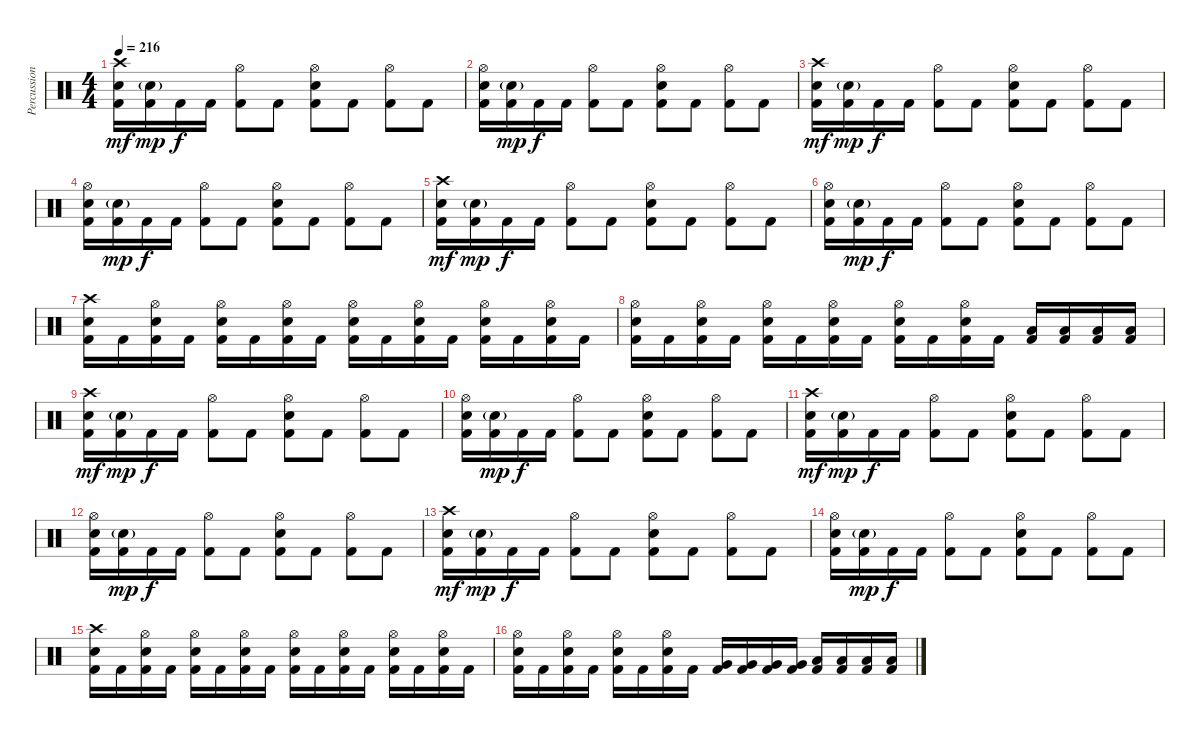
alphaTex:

\track ("Percussions" "Percussion") {instrument percussion}
\staff {score}
\articulation defaults
\ts (4 4)
\tempo 216
\clef neutral
\ks c
("Crash high (hit)" "Electric Snare (hit)" "Kick (hit) 2").16{dy mf} ("Electric Snare (hit)"{g} "Kick (hit) 2").16{dy mp} "Kick (hit) 2".16{dy f} "Kick (hit) 2".16 ("Hi-Hat (open)" "Kick (hit) 2").8 "Kick (hit) 2".8 ("Hi-Hat (open)" "Electric Snare (hit)" "Kick (hit) 2").8 "Kick (hit) 2".8 ("Hi-Hat (open)" "Kick (hit) 2").8 "Kick (hit) 2".8 |
("Hi-Hat (open)" "Electric Snare (hit)" "Kick (hit) 2").16 ("Electric Snare (hit)"{g} "Kick (hit) 2").16{dy mp} "Kick (hit) 2".16{dy f} "Kick (hit) 2".16 ("Hi-Hat (open)" "Kick (hit) 2").8 "Kick (hit) 2".8 ("Hi-Hat (open)" "Electric Snare (hit)" "Kick (hit) 2").8 "Kick (hit) 2".8 ("Hi-Hat (open)" "Kick (hit) 2").8 "Kick (hit) 2".8 |
("Crash high (hit)" "Electric Snare (hit)" "Kick (hit) 2").16{dy mf} ("Electric Snare (hit)"{g} "Kick (hit) 2").16{dy mp} "Kick (hit) 2".16{dy f} "Kick (hit) 2".16 ("Hi-Hat (open)" "Kick (hit) 2").8 "Kick (hit) 2".8 ("Hi-Hat (open)" "Electric Snare (hit)" "Kick (hit) 2").8 "Kick (hit) 2".8 ("Hi-Hat (open)" "Kick (hit) 2").8 "Kick (hit) 2".8 |
("Hi-Hat (open)" "Electric Snare (hit)" "Kick (hit) 2").16 ("Electric Snare (hit)"{g} "Kick (hit) 2").16{dy mp} "Kick (hit) 2".16{dy f} "Kick (hit) 2".16 ("Hi-Hat (open)" "Kick (hit) 2").8 "Kick (hit) 2".8 ("Hi-Hat (open)" "Electric Snare (hit)" "Kick (hit) 2").8 "Kick (hit) 2".8 ("Hi-Hat (open)" "Kick (hit) 2").8 "Kick (hit) 2".8 |
("Crash high (hit)" "Electric Snare (hit)" "Kick (hit) 2").16{dy mf} ("Electric Snare (hit)"{g} "Kick (hit) 2").16{dy mp} "Kick (hit) 2".16{dy f} "Kick (hit) 2".16 ("Hi-Hat (open)" "Kick (hit) 2").8 "Kick (hit) 2".8 ("Hi-Hat (open)" "Electric Snare (hit)" "Kick (hit) 2").8 "Kick (hit) 2".8 ("Hi-Hat (open)" "Kick (hit) 2").8 "Kick (hit) 2".8 |
("Hi-Hat (open)" "Electric Snare (hit)" "Kick (hit) 2").16 ("Electric Snare (hit)"{g} "Kick (hit) 2").16{dy mp} "Kick (hit) 2".16{dy f} "Kick (hit) 2".16 ("Hi-Hat (open)" "Kick (hit) 2").8 "Kick (hit) 2".8 ("Hi-Hat (open)" "Electric Snare (hit)" "Kick (hit) 2").8 "Kick (hit) 2".8 ("Hi-Hat (open)" "Kick (hit) 2").8 "Kick (hit) 2".8 |
("Crash high (hit)" "Electric Snare (hit)" "Kick (hit) 2").16 "Kick (hit) 2".16 ("Hi-Hat (open)" "Electric Snare (hit)" "Kick (hit) 2").16 "Kick (hit) 2".16 ("Hi-Hat (open)" "Electric Snare (hit)" "Kick (hit) 2").16 "Kick (hit) 2".16 ("Hi-Hat (open)" "Electric Snare (hit)" "Kick (hit) 2").16 "Kick (hit) 2".16 ("Hi-Hat (open)" "Electric Snare (hit)" "Kick (hit) 2").16 "Kick (hit) 2".16 ("Hi-Hat (open)" "Electric Snare (hit)" "Kick (hit) 2").16 "Kick (hit) 2".16 ("Hi-Hat (open)" "Electric Snare (hit)" "Kick (hit) 2").16 "Kick (hit) 2".16 ("Hi-Hat (open)" "Electric Snare (hit)" "Kick (hit) 2").16 "Kick (hit) 2".16 |
("Hi-Hat (open)" "Electric Snare (hit)" "Kick (hit) 2").16 "Kick (hit) 2".16 ("Hi-Hat (open)" "Electric Snare (hit)" "Kick (hit) 2").16 "Kick (hit) 2".16 ("Hi-Hat (open)" "Electric Snare (hit)" "Kick (hit) 2").16 "Kick (hit) 2".16 ("Hi-Hat (open)" "Electric Snare (hit)" "Kick (hit) 2").16 "Kick (hit) 2".16 ("Hi-Hat (open)" "Electric Snare (hit)" "Kick (hit) 2").16 "Kick (hit) 2".16 ("Hi-Hat (open)" "Electric Snare (hit)" "Kick (hit) 2").16 "Kick (hit) 2".16 ("Low Tom (hit)" "Kick (hit) 2").16 ("Low Tom (hit)" "Kick (hit) 2").16 ("Low Tom (hit)" "Kick (hit) 2").16 ("Low Tom (hit)" "Kick (hit) 2").16 |
("Crash high (hit)" "Electric Snare (hit)" "Kick (hit) 2").16{dy mf} ("Electric Snare (hit)"{g} "Kick (hit) 2").16{dy mp} "Kick (hit) 2".16{dy f} "Kick (hit) 2".16 ("Hi-Hat (open)" "Kick (hit) 2").8 "Kick (hit) 2".8 ("Hi-Hat (open)" "Electric Snare (hit)" "Kick (hit) 2").8 "Kick (hit) 2".8 ("Hi-Hat (open)" "Kick (hit) 2").8 "Kick (hit) 2".8 |
("Hi-Hat (open)" "Electric Snare (hit)" "Kick (hit) 2").16 ("Electric Snare (hit)"{g} "Kick (hit) 2").16{dy mp} "Kick (hit) 2".16{dy f} "Kick (hit) 2".16 ("Hi-Hat (open)" "Kick (hit) 2").8 "Kick (hit) 2".8 ("Hi-Hat (open)" "Electric Snare (hit)" "Kick (hit) 2").8 "Kick (hit) 2".8 ("Hi-Hat (open)" "Kick (hit) 2").8 "Kick (hit) 2".8 |
("Crash high (hit)" "Electric Snare (hit)" "Kick (hit) 2").16{dy mf} ("Electric Snare (hit)"{g} "Kick (hit) 2").16{dy mp} "Kick (hit) 2".16{dy f} "Kick (hit) 2".16 ("Hi-Hat (open)" "Kick (hit) 2").8 "Kick (hit) 2".8 ("Hi-Hat (open)" "Electric Snare (hit)" "Kick (hit) 2").8 "Kick (hit) 2".8 ("Hi-Hat (open)" "Kick (hit) 2").8 "Kick (hit) 2".8 |
("Hi-Hat (open)" "Electric Snare (hit)" "Kick (hit) 2").16 ("Electric Snare (hit)"{g} "Kick (hit) 2").16{dy mp} "Kick (hit) 2".16{dy f} "Kick (hit) 2".16 ("Hi-Hat (open)" "Kick (hit) 2").8 "Kick (hit) 2".8 ("Hi-Hat (open)" "Electric Snare (hit)" "Kick (hit) 2").8 "Kick (hit) 2".8 ("Hi-Hat (open)" "Kick (hit) 2").8 "Kick (hit) 2".8 |
("Crash high (hit)" "Electric Snare (hit)" "Kick (hit) 2").16{dy mf} ("Electric Snare (hit)"{g} "Kick (hit) 2").16{dy mp} "Kick (hit) 2".16{dy f} "Kick (hit) 2".16 ("Hi-Hat (open)" "Kick (hit) 2").8 "Kick (hit) 2".8 ("Hi-Hat (open)" "Electric Snare (hit)" "Kick (hit) 2").8 "Kick (hit) 2".8 ("Hi-Hat (open)" "Kick (hit) 2").8 "Kick (hit) 2".8 |
("Hi-Hat (open)" "Electric Snare (hit)" "Kick (hit) 2").16 ("Electric Snare (hit)"{g} "Kick (hit) 2").16{dy mp} "Kick (hit) 2".16{dy f} "Kick (hit) 2".16 ("Hi-Hat (open)" "Kick (hit) 2").8 "Kick (hit) 2".8 ("Hi-Hat (open)" "Electric Snare (hit)" "Kick (hit) 2").8 "Kick (hit) 2".8 ("Hi-Hat (open)" "Kick (hit) 2").8 "Kick (hit) 2".8 |
("Crash high (hit)" "Electric Snare (hit)" "Kick (hit) 2").16 "Kick (hit) 2".16 ("Hi-Hat (open)" "Electric Snare (hit)" "Kick (hit) 2").16 "Kick (hit) 2".16 ("Hi-Hat (open)" "Electric Snare (hit)" "Kick (hit) 2").16 "Kick (hit) 2".16 ("Hi-Hat (open)" "Electric Snare (hit)" "Kick (hit) 2").16 "Kick (hit) 2".16 ("Hi-Hat (open)" "Electric Snare (hit)" "Kick (hit) 2").16 "Kick (hit) 2".16 ("Hi-Hat (open)" "Electric Snare (hit)" "Kick (hit) 2").16 "Kick (hit) 2".16 ("Hi-Hat (open)" "Electric Snare (hit)" "Kick (hit) 2").16 "Kick (hit) 2".16 ("Hi-Hat (open)" "Electric Snare (hit)" "Kick (hit) 2").16 "Kick (hit) 2".16 |
("Hi-Hat (open)" "Electric Snare (hit)" "Kick (hit) 2").16 "Kick (hit) 2".16 ("Hi-Hat (open)" "Electric Snare (hit)" "Kick (hit) 2").16 "Kick (hit) 2".16 ("Hi-Hat (open)" "Electric Snare (hit)" "Kick (hit) 2").16 "Kick (hit) 2".16 ("Hi-Hat (open)" "Electric Snare (hit)" "Kick (hit) 2").16 "Kick (hit) 2".16 ("Very Low Tom (hit)" "Kick (hit) 2").16 ("Very Low Tom (hit)" "Kick (hit) 2").16 ("Very Low Tom (hit)" "Kick (hit) 2").16 ("Very Low Tom (hit)" "Kick (hit) 2").16 ("Low Tom (hit)" "Kick (hit) 2").16 ("Low Tom (hit)" "Kick (hit) 2").16 ("Low Tom (hit)" "Kick (hit) 2").16 ("Low Tom (hit)" "Kick (hit) 2").16
